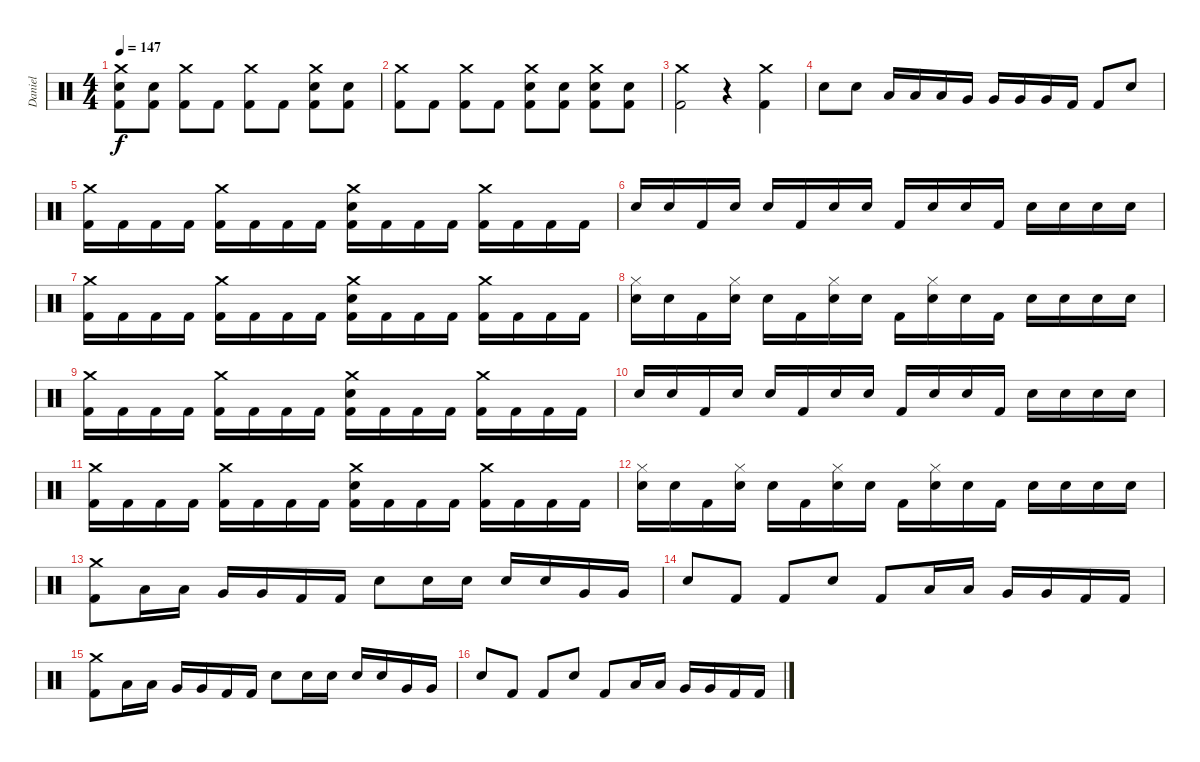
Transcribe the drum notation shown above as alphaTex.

\track ("Daniel" "Daniel") {instrument percussion}
\staff {score}
\articulation defaults
\ts (4 4)
\tempo 147
\clef neutral
\ks c
("Crash medium (hit)" "Electric Snare (hit)" "Kick (hit) 2").8{dy f} ("Electric Snare (hit)" "Kick (hit) 2").8 ("Crash medium (hit)" "Kick (hit) 2").8 "Kick (hit) 2".8 ("Crash medium (hit)" "Kick (hit) 2").8 "Kick (hit) 2".8 ("Crash medium (hit)" "Electric Snare (hit)" "Kick (hit) 2").8 ("Electric Snare (hit)" "Kick (hit) 2").8 |
("Crash medium (hit)" "Kick (hit) 2").8 "Kick (hit) 2".8 ("Crash medium (hit)" "Kick (hit) 2").8 "Kick (hit) 2".8 ("Crash medium (hit)" "Electric Snare (hit)" "Kick (hit) 2").8 ("Electric Snare (hit)" "Kick (hit) 2").8 ("Crash medium (hit)" "Electric Snare (hit)" "Kick (hit) 2").8 ("Electric Snare (hit)" "Kick (hit) 2").8 |
("Crash medium (hit)" "Kick (hit) 2").2 r.4 ("Crash medium (hit)" "Kick (hit) 2").4 |
"Electric Snare (hit)".8 "Electric Snare (hit)".8 "Low Tom (hit)".16 "Low Tom (hit)".16 "Low Tom (hit)".16 "Very Low Tom (hit)".16 "Very Low Tom (hit)".16 "Very Low Tom (hit)".16 "Very Low Tom (hit)".16 "Kick (hit) 2".16 "Kick (hit) 2".8 "Electric Snare (hit)".8 |
("Crash medium (hit)" "Kick (hit) 2").16 "Kick (hit) 2".16 "Kick (hit) 2".16 "Kick (hit) 2".16 ("Crash medium (hit)" "Kick (hit) 2").16 "Kick (hit) 2".16 "Kick (hit) 2".16 "Kick (hit) 2".16 ("Crash medium (hit)" "Electric Snare (hit)" "Kick (hit) 2").16 "Kick (hit) 2".16 "Kick (hit) 2".16 "Kick (hit) 2".16 ("Crash medium (hit)" "Kick (hit) 2").16 "Kick (hit) 2".16 "Kick (hit) 2".16 "Kick (hit) 2".16 |
"Electric Snare (hit)".16 "Electric Snare (hit)".16 "Kick (hit) 2".16 "Electric Snare (hit)".16 "Electric Snare (hit)".16 "Kick (hit) 2".16 "Electric Snare (hit)".16 "Electric Snare (hit)".16 "Kick (hit) 2".16 "Electric Snare (hit)".16 "Electric Snare (hit)".16 "Kick (hit) 2".16 "Electric Snare (hit)".16 "Electric Snare (hit)".16 "Electric Snare (hit)".16 "Electric Snare (hit)".16 |
("Crash medium (hit)" "Kick (hit) 2").16 "Kick (hit) 2".16 "Kick (hit) 2".16 "Kick (hit) 2".16 ("Crash medium (hit)" "Kick (hit) 2").16 "Kick (hit) 2".16 "Kick (hit) 2".16 "Kick (hit) 2".16 ("Crash medium (hit)" "Electric Snare (hit)" "Kick (hit) 2").16 "Kick (hit) 2".16 "Kick (hit) 2".16 "Kick (hit) 2".16 ("Crash medium (hit)" "Kick (hit) 2").16 "Kick (hit) 2".16 "Kick (hit) 2".16 "Kick (hit) 2".16 |
("Hi-Hat (closed)" "Electric Snare (hit)").16 "Electric Snare (hit)".16 "Kick (hit) 2".16 ("Hi-Hat (closed)" "Electric Snare (hit)").16 "Electric Snare (hit)".16 "Kick (hit) 2".16 ("Hi-Hat (closed)" "Electric Snare (hit)").16 "Electric Snare (hit)".16 "Kick (hit) 2".16 ("Hi-Hat (closed)" "Electric Snare (hit)").16 "Electric Snare (hit)".16 "Kick (hit) 2".16 "Electric Snare (hit)".16 "Electric Snare (hit)".16 "Electric Snare (hit)".16 "Electric Snare (hit)".16 |
("Crash medium (hit)" "Kick (hit) 2").16 "Kick (hit) 2".16 "Kick (hit) 2".16 "Kick (hit) 2".16 ("Crash medium (hit)" "Kick (hit) 2").16 "Kick (hit) 2".16 "Kick (hit) 2".16 "Kick (hit) 2".16 ("Crash medium (hit)" "Electric Snare (hit)" "Kick (hit) 2").16 "Kick (hit) 2".16 "Kick (hit) 2".16 "Kick (hit) 2".16 ("Crash medium (hit)" "Kick (hit) 2").16 "Kick (hit) 2".16 "Kick (hit) 2".16 "Kick (hit) 2".16 |
"Electric Snare (hit)".16 "Electric Snare (hit)".16 "Kick (hit) 2".16 "Electric Snare (hit)".16 "Electric Snare (hit)".16 "Kick (hit) 2".16 "Electric Snare (hit)".16 "Electric Snare (hit)".16 "Kick (hit) 2".16 "Electric Snare (hit)".16 "Electric Snare (hit)".16 "Kick (hit) 2".16 "Electric Snare (hit)".16 "Electric Snare (hit)".16 "Electric Snare (hit)".16 "Electric Snare (hit)".16 |
("Crash medium (hit)" "Kick (hit) 2").16 "Kick (hit) 2".16 "Kick (hit) 2".16 "Kick (hit) 2".16 ("Crash medium (hit)" "Kick (hit) 2").16 "Kick (hit) 2".16 "Kick (hit) 2".16 "Kick (hit) 2".16 ("Crash medium (hit)" "Electric Snare (hit)" "Kick (hit) 2").16 "Kick (hit) 2".16 "Kick (hit) 2".16 "Kick (hit) 2".16 ("Crash medium (hit)" "Kick (hit) 2").16 "Kick (hit) 2".16 "Kick (hit) 2".16 "Kick (hit) 2".16 |
("Hi-Hat (closed)" "Electric Snare (hit)").16 "Electric Snare (hit)".16 "Kick (hit) 2".16 ("Hi-Hat (closed)" "Electric Snare (hit)").16 "Electric Snare (hit)".16 "Kick (hit) 2".16 ("Hi-Hat (closed)" "Electric Snare (hit)").16 "Electric Snare (hit)".16 "Kick (hit) 2".16 ("Hi-Hat (closed)" "Electric Snare (hit)").16 "Electric Snare (hit)".16 "Kick (hit) 2".16 "Electric Snare (hit)".16 "Electric Snare (hit)".16 "Electric Snare (hit)".16 "Electric Snare (hit)".16 |
("Crash medium (hit)" "Kick (hit) 2").8 "Low Tom (hit)".16 "Low Tom (hit)".16 "Very Low Tom (hit)".16 "Very Low Tom (hit)".16 "Kick (hit) 2".16 "Kick (hit) 2".16 "Electric Snare (hit)".8 "Electric Snare (hit)".16 "Electric Snare (hit)".16 "Electric Snare (hit)".16 "Electric Snare (hit)".16 "Very Low Tom (hit)".16 "Very Low Tom (hit)".16 |
"Electric Snare (hit)".8 "Kick (hit) 2".8 "Kick (hit) 2".8 "Electric Snare (hit)".8 "Kick (hit) 2".8 "Low Tom (hit)".16 "Low Tom (hit)".16 "Very Low Tom (hit)".16 "Very Low Tom (hit)".16 "Kick (hit) 2".16 "Kick (hit) 2".16 |
("Crash medium (hit)" "Kick (hit) 2").8 "Low Tom (hit)".16 "Low Tom (hit)".16 "Very Low Tom (hit)".16 "Very Low Tom (hit)".16 "Kick (hit) 2".16 "Kick (hit) 2".16 "Electric Snare (hit)".8 "Electric Snare (hit)".16 "Electric Snare (hit)".16 "Electric Snare (hit)".16 "Electric Snare (hit)".16 "Very Low Tom (hit)".16 "Very Low Tom (hit)".16 |
"Electric Snare (hit)".8 "Kick (hit) 2".8 "Kick (hit) 2".8 "Electric Snare (hit)".8 "Kick (hit) 2".8 "Low Tom (hit)".16 "Low Tom (hit)".16 "Very Low Tom (hit)".16 "Very Low Tom (hit)".16 "Kick (hit) 2".16 "Kick (hit) 2".16
